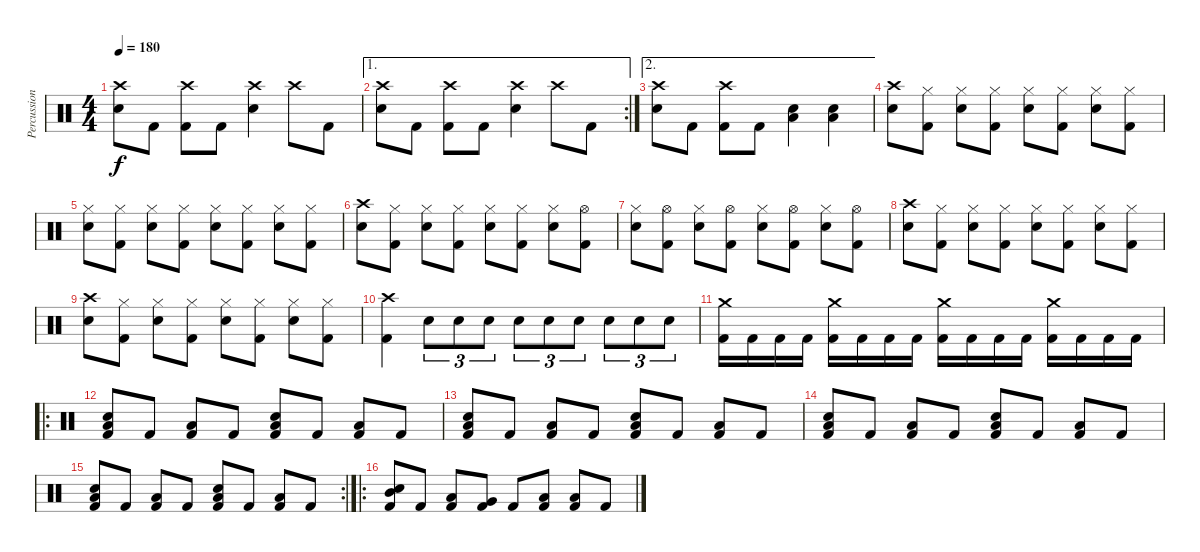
\track ("Percussions" "Percussion") {instrument percussion}
\staff {score}
\articulation defaults
\ts (4 4)
\tempo 180
\clef neutral
\ks c
("Crash high (hit)" "Snare (hit) 2").8{dy f} "Kick (hit) 2".8 ("Crash high (hit)" "Kick (hit) 2").8 "Kick (hit) 2".8 ("Crash high (hit)" "Snare (hit) 2").4 "Crash high (hit)".8 "Kick (hit) 2".8 |
\ae 1
\rc 2
("Crash high (hit)" "Snare (hit) 2").8 "Kick (hit) 2".8 ("Crash high (hit)" "Kick (hit) 2").8 "Kick (hit) 2".8 ("Crash high (hit)" "Snare (hit) 2").4 "Crash high (hit)".8 "Kick (hit) 2".8 |
\ae 2
("Crash high (hit)" "Snare (hit) 2").8 "Kick (hit) 2".8 ("Crash high (hit)" "Kick (hit) 2").8 "Kick (hit) 2".8 ("Low Floor Tom (hit)" "Snare (hit) 2").4 ("Low Floor Tom (hit)" "Snare (hit) 2").4 |
("Crash high (hit)" "Snare (hit) 2").8 ("Hi-Hat (closed)" "Kick (hit) 2").8 ("Hi-Hat (closed)" "Snare (hit) 2").8 ("Hi-Hat (closed)" "Kick (hit) 2").8 ("Hi-Hat (closed)" "Snare (hit) 2").8 ("Hi-Hat (closed)" "Kick (hit) 2").8 ("Hi-Hat (closed)" "Snare (hit) 2").8 ("Hi-Hat (closed)" "Kick (hit) 2").8 |
("Hi-Hat (closed)" "Snare (hit) 2").8 ("Hi-Hat (closed)" "Kick (hit) 2").8 ("Hi-Hat (closed)" "Snare (hit) 2").8 ("Hi-Hat (closed)" "Kick (hit) 2").8 ("Hi-Hat (closed)" "Snare (hit) 2").8 ("Hi-Hat (closed)" "Kick (hit) 2").8 ("Hi-Hat (closed)" "Snare (hit) 2").8 ("Hi-Hat (closed)" "Kick (hit) 2").8 |
("Crash high (hit)" "Snare (hit) 2").8 ("Hi-Hat (closed)" "Kick (hit) 2").8 ("Hi-Hat (closed)" "Snare (hit) 2").8 ("Hi-Hat (closed)" "Kick (hit) 2").8 ("Hi-Hat (closed)" "Snare (hit) 2").8 ("Hi-Hat (closed)" "Kick (hit) 2").8 ("Hi-Hat (closed)" "Snare (hit) 2").8 ("Hi-Hat (open)" "Kick (hit) 2").8 |
("Hi-Hat (closed)" "Snare (hit) 2").8 ("Hi-Hat (open)" "Kick (hit) 2").8 ("Hi-Hat (closed)" "Snare (hit) 2").8 ("Hi-Hat (open)" "Kick (hit) 2").8 ("Hi-Hat (closed)" "Snare (hit) 2").8 ("Hi-Hat (open)" "Kick (hit) 2").8 ("Hi-Hat (closed)" "Snare (hit) 2").8 ("Hi-Hat (open)" "Kick (hit) 2").8 |
("Crash high (hit)" "Snare (hit) 2").8 ("Hi-Hat (closed)" "Kick (hit) 2").8 ("Hi-Hat (closed)" "Snare (hit) 2").8 ("Hi-Hat (closed)" "Kick (hit) 2").8 ("Hi-Hat (closed)" "Snare (hit) 2").8 ("Hi-Hat (closed)" "Kick (hit) 2").8 ("Hi-Hat (closed)" "Snare (hit) 2").8 ("Hi-Hat (closed)" "Kick (hit) 2").8 |
("Crash high (hit)" "Snare (hit) 2").8 ("Hi-Hat (closed)" "Kick (hit) 2").8 ("Hi-Hat (closed)" "Snare (hit) 2").8 ("Hi-Hat (closed)" "Kick (hit) 2").8 ("Hi-Hat (closed)" "Snare (hit) 2").8 ("Hi-Hat (closed)" "Kick (hit) 2").8 ("Hi-Hat (closed)" "Snare (hit) 2").8 ("Hi-Hat (closed)" "Kick (hit) 2").8 |
("Crash high (hit)" "Kick (hit) 2").4 "Snare (hit) 2".8{tu (3 2)} "Snare (hit) 2".8{tu (3 2)} "Snare (hit) 2".8{tu (3 2)} "Snare (hit) 2".8{tu (3 2)} "Snare (hit) 2".8{tu (3 2)} "Snare (hit) 2".8{tu (3 2)} "Snare (hit) 2".8{tu (3 2)} "Snare (hit) 2".8{tu (3 2)} "Snare (hit) 2".8{tu (3 2)} |
("Crash medium (hit)" "Kick (hit) 2").16 "Kick (hit) 2".16 "Kick (hit) 2".16 "Kick (hit) 2".16 ("Crash medium (hit)" "Kick (hit) 2").16 "Kick (hit) 2".16 "Kick (hit) 2".16 "Kick (hit) 2".16 ("Crash medium (hit)" "Kick (hit) 2").16 "Kick (hit) 2".16 "Kick (hit) 2".16 "Kick (hit) 2".16 ("Crash medium (hit)" "Kick (hit) 2").16 "Kick (hit) 2".16 "Kick (hit) 2".16 "Kick (hit) 2".16 |
\ro
("Low Floor Tom (hit)" "Snare (hit) 2" "Kick (hit) 2").8 "Kick (hit) 2".8 ("Low Floor Tom (hit)" "Kick (hit) 2").8 "Kick (hit) 2".8 ("Low Floor Tom (hit)" "Snare (hit) 2" "Kick (hit) 2").8 "Kick (hit) 2".8 ("Low Floor Tom (hit)" "Kick (hit) 2").8 "Kick (hit) 2".8 |
("Low Floor Tom (hit)" "Snare (hit) 2" "Kick (hit) 2").8 "Kick (hit) 2".8 ("Low Floor Tom (hit)" "Kick (hit) 2").8 "Kick (hit) 2".8 ("Low Floor Tom (hit)" "Snare (hit) 2" "Kick (hit) 2").8 "Kick (hit) 2".8 ("Low Floor Tom (hit)" "Kick (hit) 2").8 "Kick (hit) 2".8 |
("Low Floor Tom (hit)" "Snare (hit) 2" "Kick (hit) 2").8 "Kick (hit) 2".8 ("Low Floor Tom (hit)" "Kick (hit) 2").8 "Kick (hit) 2".8 ("Low Floor Tom (hit)" "Snare (hit) 2" "Kick (hit) 2").8 "Kick (hit) 2".8 ("Low Floor Tom (hit)" "Kick (hit) 2").8 "Kick (hit) 2".8 |
\rc 2
("Low Floor Tom (hit)" "Snare (hit) 2" "Kick (hit) 2").8 "Kick (hit) 2".8 ("Low Floor Tom (hit)" "Kick (hit) 2").8 "Kick (hit) 2".8 ("Low Floor Tom (hit)" "Snare (hit) 2" "Kick (hit) 2").8 "Kick (hit) 2".8 ("Low Floor Tom (hit)" "Kick (hit) 2").8 "Kick (hit) 2".8 |
\ro
("Mid Tom (hit)" "Snare (hit) 2" "Kick (hit) 2").8 "Kick (hit) 2".8 ("Low Floor Tom (hit)" "Kick (hit) 2").8 ("Very Low Tom (hit)" "Kick (hit) 2").8 "Kick (hit) 2".8 ("Low Tom (hit)" "Kick (hit) 2").8 ("Low Tom (hit)" "Kick (hit) 2").8 "Kick (hit) 2".8
